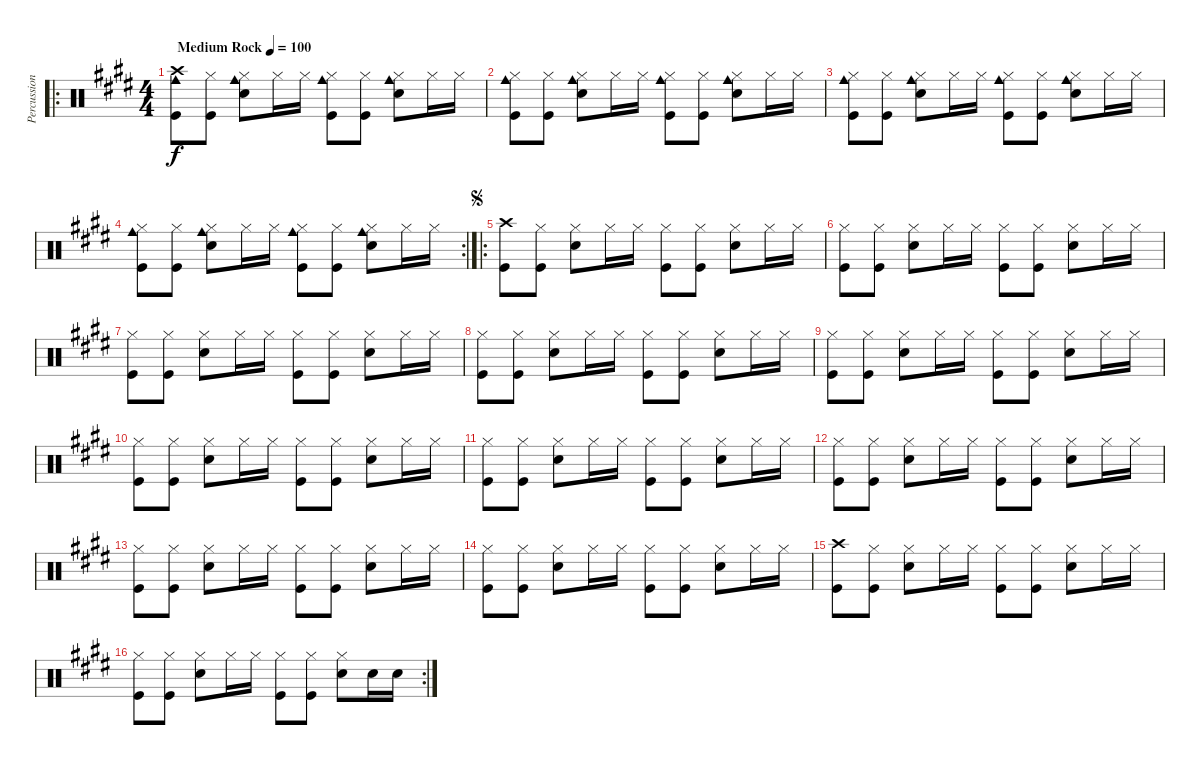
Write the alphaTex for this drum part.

\track ("Percussions" "Percussion") {instrument percussion}
\staff {score}
\articulation defaults
\ro
\ts (4 4)
\tempo (100 "Medium Rock")
\clef neutral
\ks e
("Crash high (hit)" "Cowbell medium (hit)" "Kick (hit)").8{dy f} ("Hi-Hat (closed)" "Kick (hit)").8 ("Hi-Hat (closed)" "Snare (hit) 2" "Cowbell medium (hit)").8 "Hi-Hat (closed)".16 "Hi-Hat (closed)".16 ("Hi-Hat (closed)" "Cowbell medium (hit)" "Kick (hit)").8 ("Hi-Hat (closed)" "Kick (hit)").8 ("Hi-Hat (closed)" "Snare (hit) 2" "Cowbell medium (hit)").8 "Hi-Hat (closed)".16 "Hi-Hat (closed)".16 |
("Hi-Hat (closed)" "Cowbell medium (hit)" "Kick (hit)").8 ("Hi-Hat (closed)" "Kick (hit)").8 ("Hi-Hat (closed)" "Snare (hit) 2" "Cowbell medium (hit)").8 "Hi-Hat (closed)".16 "Hi-Hat (closed)".16 ("Hi-Hat (closed)" "Cowbell medium (hit)" "Kick (hit)").8 ("Hi-Hat (closed)" "Kick (hit)").8 ("Hi-Hat (closed)" "Snare (hit) 2" "Cowbell medium (hit)").8 "Hi-Hat (closed)".16 "Hi-Hat (closed)".16 |
("Hi-Hat (closed)" "Cowbell medium (hit)" "Kick (hit)").8 ("Hi-Hat (closed)" "Kick (hit)").8 ("Hi-Hat (closed)" "Snare (hit) 2" "Cowbell medium (hit)").8 "Hi-Hat (closed)".16 "Hi-Hat (closed)".16 ("Hi-Hat (closed)" "Cowbell medium (hit)" "Kick (hit)").8 ("Hi-Hat (closed)" "Kick (hit)").8 ("Hi-Hat (closed)" "Snare (hit) 2" "Cowbell medium (hit)").8 "Hi-Hat (closed)".16 "Hi-Hat (closed)".16 |
\rc 2
("Hi-Hat (closed)" "Cowbell medium (hit)" "Kick (hit)").8 ("Hi-Hat (closed)" "Kick (hit)").8 ("Hi-Hat (closed)" "Snare (hit) 2" "Cowbell medium (hit)").8 "Hi-Hat (closed)".16 "Hi-Hat (closed)".16 ("Hi-Hat (closed)" "Cowbell medium (hit)" "Kick (hit)").8 ("Hi-Hat (closed)" "Kick (hit)").8 ("Hi-Hat (closed)" "Snare (hit) 2" "Cowbell medium (hit)").8 "Hi-Hat (closed)".16 "Hi-Hat (closed)".16 |
\ro
\jump segno
("Crash high (hit)" "Kick (hit)").8 ("Hi-Hat (closed)" "Kick (hit)").8 ("Hi-Hat (closed)" "Snare (hit) 2").8 "Hi-Hat (closed)".16 "Hi-Hat (closed)".16 ("Hi-Hat (closed)" "Kick (hit)").8 ("Hi-Hat (closed)" "Kick (hit)").8 ("Hi-Hat (closed)" "Snare (hit) 2").8 "Hi-Hat (closed)".16 "Hi-Hat (closed)".16 |
("Hi-Hat (closed)" "Kick (hit)").8 ("Hi-Hat (closed)" "Kick (hit)").8 ("Hi-Hat (closed)" "Snare (hit) 2").8 "Hi-Hat (closed)".16 "Hi-Hat (closed)".16 ("Hi-Hat (closed)" "Kick (hit)").8 ("Hi-Hat (closed)" "Kick (hit)").8 ("Hi-Hat (closed)" "Snare (hit) 2").8 "Hi-Hat (closed)".16 "Hi-Hat (closed)".16 |
("Hi-Hat (closed)" "Kick (hit)").8 ("Hi-Hat (closed)" "Kick (hit)").8 ("Hi-Hat (closed)" "Snare (hit) 2").8 "Hi-Hat (closed)".16 "Hi-Hat (closed)".16 ("Hi-Hat (closed)" "Kick (hit)").8 ("Hi-Hat (closed)" "Kick (hit)").8 ("Hi-Hat (closed)" "Snare (hit) 2").8 "Hi-Hat (closed)".16 "Hi-Hat (closed)".16 |
("Hi-Hat (closed)" "Kick (hit)").8 ("Hi-Hat (closed)" "Kick (hit)").8 ("Hi-Hat (closed)" "Snare (hit) 2").8 "Hi-Hat (closed)".16 "Hi-Hat (closed)".16 ("Hi-Hat (closed)" "Kick (hit)").8 ("Hi-Hat (closed)" "Kick (hit)").8 ("Hi-Hat (closed)" "Snare (hit) 2").8 "Hi-Hat (closed)".16 "Hi-Hat (closed)".16 |
("Hi-Hat (closed)" "Kick (hit)").8 ("Hi-Hat (closed)" "Kick (hit)").8 ("Hi-Hat (closed)" "Snare (hit) 2").8 "Hi-Hat (closed)".16 "Hi-Hat (closed)".16 ("Hi-Hat (closed)" "Kick (hit)").8 ("Hi-Hat (closed)" "Kick (hit)").8 ("Hi-Hat (closed)" "Snare (hit) 2").8 "Hi-Hat (closed)".16 "Hi-Hat (closed)".16 |
("Hi-Hat (closed)" "Kick (hit)").8 ("Hi-Hat (closed)" "Kick (hit)").8 ("Hi-Hat (closed)" "Snare (hit) 2").8 "Hi-Hat (closed)".16 "Hi-Hat (closed)".16 ("Hi-Hat (closed)" "Kick (hit)").8 ("Hi-Hat (closed)" "Kick (hit)").8 ("Hi-Hat (closed)" "Snare (hit) 2").8 "Hi-Hat (closed)".16 "Hi-Hat (closed)".16 |
("Hi-Hat (closed)" "Kick (hit)").8 ("Hi-Hat (closed)" "Kick (hit)").8 ("Hi-Hat (closed)" "Snare (hit) 2").8 "Hi-Hat (closed)".16 "Hi-Hat (closed)".16 ("Hi-Hat (closed)" "Kick (hit)").8 ("Hi-Hat (closed)" "Kick (hit)").8 ("Hi-Hat (closed)" "Snare (hit) 2").8 "Hi-Hat (closed)".16 "Hi-Hat (closed)".16 |
("Hi-Hat (closed)" "Kick (hit)").8 ("Hi-Hat (closed)" "Kick (hit)").8 ("Hi-Hat (closed)" "Snare (hit) 2").8 "Hi-Hat (closed)".16 "Hi-Hat (closed)".16 ("Hi-Hat (closed)" "Kick (hit)").8 ("Hi-Hat (closed)" "Kick (hit)").8 ("Hi-Hat (closed)" "Snare (hit) 2").8 "Hi-Hat (closed)".16 "Hi-Hat (closed)".16 |
("Hi-Hat (closed)" "Kick (hit)").8 ("Hi-Hat (closed)" "Kick (hit)").8 ("Hi-Hat (closed)" "Snare (hit) 2").8 "Hi-Hat (closed)".16 "Hi-Hat (closed)".16 ("Hi-Hat (closed)" "Kick (hit)").8 ("Hi-Hat (closed)" "Kick (hit)").8 ("Hi-Hat (closed)" "Snare (hit) 2").8 "Hi-Hat (closed)".16 "Hi-Hat (closed)".16 |
("Hi-Hat (closed)" "Kick (hit)").8 ("Hi-Hat (closed)" "Kick (hit)").8 ("Hi-Hat (closed)" "Snare (hit) 2").8 "Hi-Hat (closed)".16 "Hi-Hat (closed)".16 ("Hi-Hat (closed)" "Kick (hit)").8 ("Hi-Hat (closed)" "Kick (hit)").8 ("Hi-Hat (closed)" "Snare (hit) 2").8 "Hi-Hat (closed)".16 "Hi-Hat (closed)".16 |
("Crash high (hit)" "Kick (hit)").8 ("Hi-Hat (closed)" "Kick (hit)").8 ("Hi-Hat (closed)" "Snare (hit) 2").8 "Hi-Hat (closed)".16 "Hi-Hat (closed)".16 ("Hi-Hat (closed)" "Kick (hit)").8 ("Hi-Hat (closed)" "Kick (hit)").8 ("Hi-Hat (closed)" "Snare (hit) 2").8 "Hi-Hat (closed)".16 "Hi-Hat (closed)".16 |
\rc 2
("Hi-Hat (closed)" "Kick (hit)").8 ("Hi-Hat (closed)" "Kick (hit)").8 ("Hi-Hat (closed)" "Snare (hit) 2").8 "Hi-Hat (closed)".16 "Hi-Hat (closed)".16 ("Hi-Hat (closed)" "Kick (hit)").8 ("Hi-Hat (closed)" "Kick (hit)").8 ("Hi-Hat (closed)" "Snare (hit) 2").8 "Snare (hit) 2".16 "Snare (hit) 2".16
